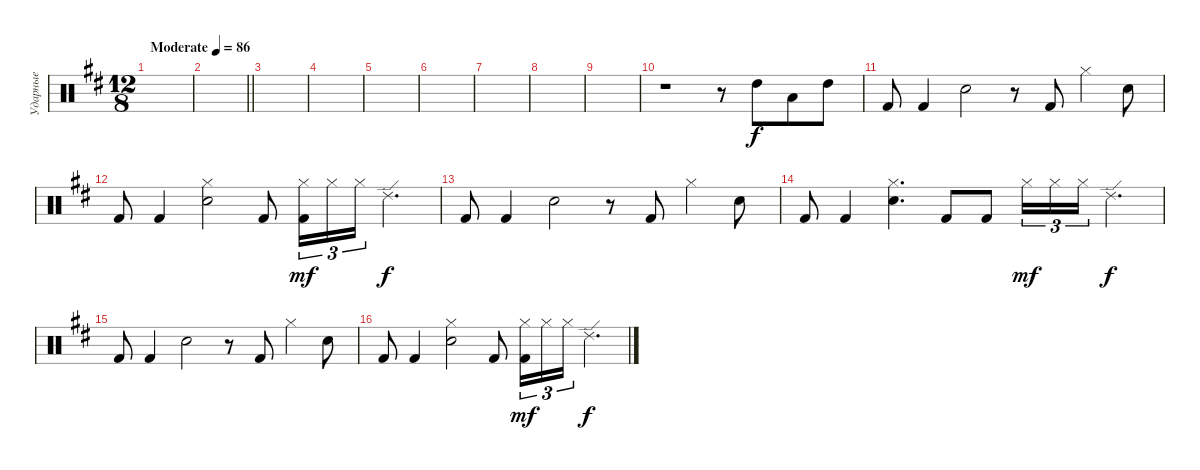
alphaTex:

\track ("Ударные" "Ударные") {instrument percussion}
\staff {score}
\articulation defaults
\ts (12 8)
\tempo (86 "Moderate")
\clef neutral
\ks d
|
\barLineRight lightlight
|
|
|
|
|
|
|
|
r.1 r.8 "High Tom (hit)".8 "Low Tom (hit)".8 "High Tom (hit)".8 |
"Kick (hit) 2".8 "Kick (hit) 2".4 "Electric Snare (hit)".2 r.8 "Kick (hit) 2".8 "Hi-Hat (closed)".4 "Snare (hit) 2".8 |
"Kick (hit) 2".8 "Kick (hit) 2".4 ("Snare (hit) 2" "Hi-Hat (closed)").2 "Kick (hit) 2".8 ("Hi-Hat (closed)" "Kick (hit) 2").16{tu (3 2) dy mf} "Hi-Hat (closed)".16{tu (3 2)} "Hi-Hat (closed)".16{tu (3 2)} "Ride (edge) 2".4{d dy f} |
"Kick (hit) 2".8 "Kick (hit) 2".4 "Electric Snare (hit)".2 r.8 "Kick (hit) 2".8 "Hi-Hat (closed)".4 "Snare (hit) 2".8 |
"Kick (hit) 2".8 "Kick (hit) 2".4 ("Snare (hit) 2" "Hi-Hat (closed)").4{d} "Kick (hit) 2".8 "Kick (hit) 2".8 "Hi-Hat (closed)".16{tu (3 2) dy mf} "Hi-Hat (closed)".16{tu (3 2)} "Hi-Hat (closed)".16{tu (3 2)} "Ride (edge) 2".4{d dy f} |
"Kick (hit) 2".8 "Kick (hit) 2".4 "Electric Snare (hit)".2 r.8 "Kick (hit) 2".8 "Hi-Hat (closed)".4 "Snare (hit) 2".8 |
"Kick (hit) 2".8 "Kick (hit) 2".4 ("Snare (hit) 2" "Hi-Hat (closed)").2 "Kick (hit) 2".8 ("Hi-Hat (closed)" "Kick (hit) 2").16{tu (3 2) dy mf} "Hi-Hat (closed)".16{tu (3 2)} "Hi-Hat (closed)".16{tu (3 2)} "Ride (edge) 2".4{d dy f}
